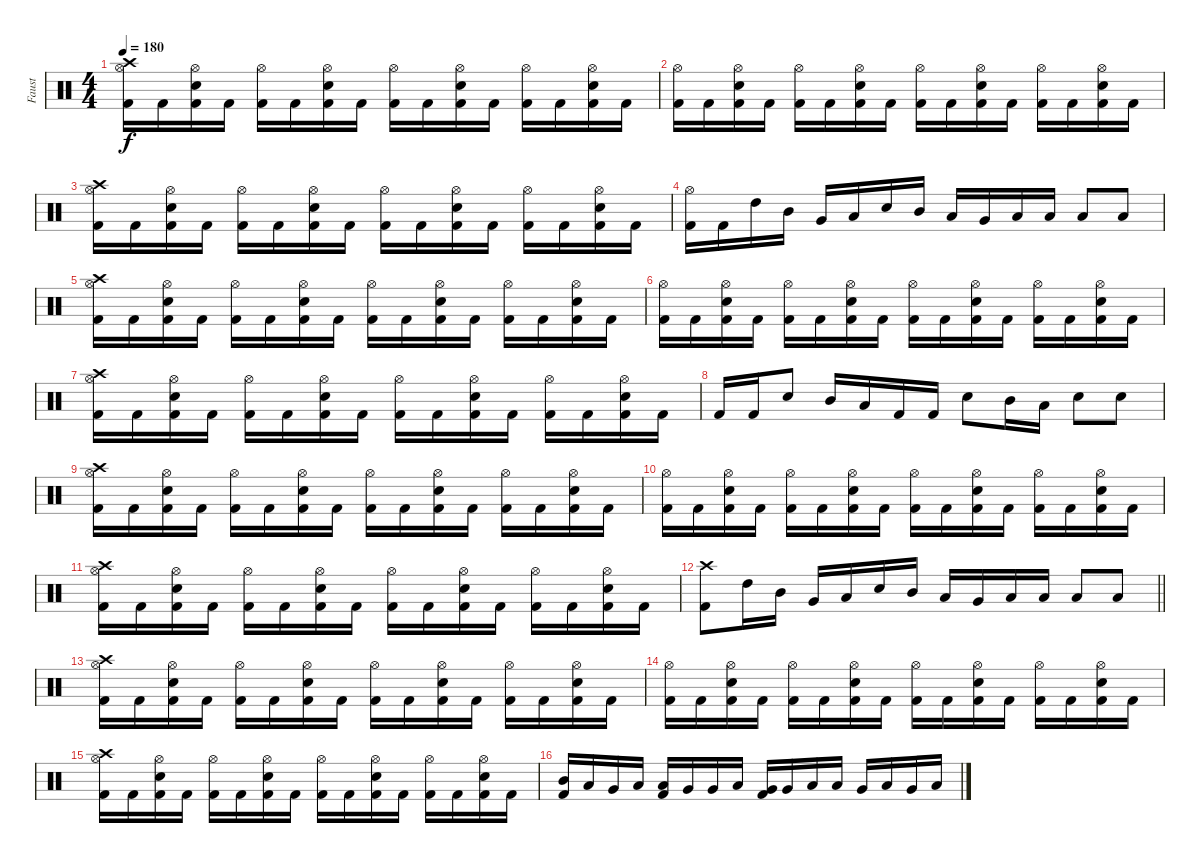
\track ("Faust" "Faust") {instrument percussion}
\staff {score}
\articulation defaults
\ts (4 4)
\tempo 180
\clef neutral
\ks c
("Crash high (hit)" "Hi-Hat (open)" "Kick (hit) 2").16{dy f} "Kick (hit) 2".16 ("Hi-Hat (open)" "Snare (hit) 2" "Kick (hit) 2").16 "Kick (hit) 2".16 ("Hi-Hat (open)" "Kick (hit) 2").16 "Kick (hit) 2".16 ("Hi-Hat (open)" "Snare (hit) 2" "Kick (hit) 2").16 "Kick (hit) 2".16 ("Hi-Hat (open)" "Kick (hit) 2").16 "Kick (hit) 2".16 ("Hi-Hat (open)" "Snare (hit) 2" "Kick (hit) 2").16 "Kick (hit) 2".16 ("Hi-Hat (open)" "Kick (hit) 2").16 "Kick (hit) 2".16 ("Hi-Hat (open)" "Snare (hit) 2" "Kick (hit) 2").16 "Kick (hit) 2".16 |
("Hi-Hat (open)" "Kick (hit) 2").16 "Kick (hit) 2".16 ("Hi-Hat (open)" "Snare (hit) 2" "Kick (hit) 2").16 "Kick (hit) 2".16 ("Hi-Hat (open)" "Kick (hit) 2").16 "Kick (hit) 2".16 ("Hi-Hat (open)" "Snare (hit) 2" "Kick (hit) 2").16 "Kick (hit) 2".16 ("Hi-Hat (open)" "Kick (hit) 2").16 "Kick (hit) 2".16 ("Hi-Hat (open)" "Snare (hit) 2" "Kick (hit) 2").16 "Kick (hit) 2".16 ("Hi-Hat (open)" "Kick (hit) 2").16 "Kick (hit) 2".16 ("Hi-Hat (open)" "Snare (hit) 2" "Kick (hit) 2").16 "Kick (hit) 2".16 |
("Crash high (hit)" "Hi-Hat (open)" "Kick (hit) 2").16 "Kick (hit) 2".16 ("Hi-Hat (open)" "Snare (hit) 2" "Kick (hit) 2").16 "Kick (hit) 2".16 ("Hi-Hat (open)" "Kick (hit) 2").16 "Kick (hit) 2".16 ("Hi-Hat (open)" "Snare (hit) 2" "Kick (hit) 2").16 "Kick (hit) 2".16 ("Hi-Hat (open)" "Kick (hit) 2").16 "Kick (hit) 2".16 ("Hi-Hat (open)" "Snare (hit) 2" "Kick (hit) 2").16 "Kick (hit) 2".16 ("Hi-Hat (open)" "Kick (hit) 2").16 "Kick (hit) 2".16 ("Hi-Hat (open)" "Snare (hit) 2" "Kick (hit) 2").16 "Kick (hit) 2".16 |
("Hi-Hat (open)" "Kick (hit) 2").16 "Kick (hit) 2".16 "High Tom (hit)".16 "Mid Tom (hit)".16 "Very Low Tom (hit)".16 "Low Tom (hit)".16 "Snare (hit) 2".16 "Mid Tom (hit)".16 "Low Tom (hit)".16 "Very Low Tom (hit)".16 "Low Floor Tom (hit)".16 "Low Floor Tom (hit)".16 "Low Tom (hit)".8 "Low Tom (hit)".8 |
("Crash high (hit)" "Hi-Hat (open)" "Kick (hit) 2").16 "Kick (hit) 2".16 ("Hi-Hat (open)" "Snare (hit) 2" "Kick (hit) 2").16 "Kick (hit) 2".16 ("Hi-Hat (open)" "Kick (hit) 2").16 "Kick (hit) 2".16 ("Hi-Hat (open)" "Snare (hit) 2" "Kick (hit) 2").16 "Kick (hit) 2".16 ("Hi-Hat (open)" "Kick (hit) 2").16 "Kick (hit) 2".16 ("Hi-Hat (open)" "Snare (hit) 2" "Kick (hit) 2").16 "Kick (hit) 2".16 ("Hi-Hat (open)" "Kick (hit) 2").16 "Kick (hit) 2".16 ("Hi-Hat (open)" "Snare (hit) 2" "Kick (hit) 2").16 "Kick (hit) 2".16 |
("Hi-Hat (open)" "Kick (hit) 2").16 "Kick (hit) 2".16 ("Hi-Hat (open)" "Snare (hit) 2" "Kick (hit) 2").16 "Kick (hit) 2".16 ("Hi-Hat (open)" "Kick (hit) 2").16 "Kick (hit) 2".16 ("Hi-Hat (open)" "Snare (hit) 2" "Kick (hit) 2").16 "Kick (hit) 2".16 ("Hi-Hat (open)" "Kick (hit) 2").16 "Kick (hit) 2".16 ("Hi-Hat (open)" "Snare (hit) 2" "Kick (hit) 2").16 "Kick (hit) 2".16 ("Hi-Hat (open)" "Kick (hit) 2").16 "Kick (hit) 2".16 ("Hi-Hat (open)" "Snare (hit) 2" "Kick (hit) 2").16 "Kick (hit) 2".16 |
("Crash high (hit)" "Hi-Hat (open)" "Kick (hit) 2").16 "Kick (hit) 2".16 ("Hi-Hat (open)" "Snare (hit) 2" "Kick (hit) 2").16 "Kick (hit) 2".16 ("Hi-Hat (open)" "Kick (hit) 2").16 "Kick (hit) 2".16 ("Hi-Hat (open)" "Snare (hit) 2" "Kick (hit) 2").16 "Kick (hit) 2".16 ("Hi-Hat (open)" "Kick (hit) 2").16 "Kick (hit) 2".16 ("Hi-Hat (open)" "Snare (hit) 2" "Kick (hit) 2").16 "Kick (hit) 2".16 ("Hi-Hat (open)" "Kick (hit) 2").16 "Kick (hit) 2".16 ("Hi-Hat (open)" "Snare (hit) 2" "Kick (hit) 2").16 "Kick (hit) 2".16 |
"Kick (hit) 2".16 "Kick (hit) 2".16 "Snare (hit) 2".8 "Mid Tom (hit)".16 "Low Tom (hit)".16 "Kick (hit) 2".16 "Kick (hit) 2".16 "Snare (hit) 2".8 "Mid Tom (hit)".16 "Low Tom (hit)".16 "Snare (hit) 2".8 "Snare (hit) 2".8 |
("Crash high (hit)" "Hi-Hat (open)" "Kick (hit) 2").16 "Kick (hit) 2".16 ("Hi-Hat (open)" "Snare (hit) 2" "Kick (hit) 2").16 "Kick (hit) 2".16 ("Hi-Hat (open)" "Kick (hit) 2").16 "Kick (hit) 2".16 ("Hi-Hat (open)" "Snare (hit) 2" "Kick (hit) 2").16 "Kick (hit) 2".16 ("Hi-Hat (open)" "Kick (hit) 2").16 "Kick (hit) 2".16 ("Hi-Hat (open)" "Snare (hit) 2" "Kick (hit) 2").16 "Kick (hit) 2".16 ("Hi-Hat (open)" "Kick (hit) 2").16 "Kick (hit) 2".16 ("Hi-Hat (open)" "Snare (hit) 2" "Kick (hit) 2").16 "Kick (hit) 2".16 |
("Hi-Hat (open)" "Kick (hit) 2").16 "Kick (hit) 2".16 ("Hi-Hat (open)" "Snare (hit) 2" "Kick (hit) 2").16 "Kick (hit) 2".16 ("Hi-Hat (open)" "Kick (hit) 2").16 "Kick (hit) 2".16 ("Hi-Hat (open)" "Snare (hit) 2" "Kick (hit) 2").16 "Kick (hit) 2".16 ("Hi-Hat (open)" "Kick (hit) 2").16 "Kick (hit) 2".16 ("Hi-Hat (open)" "Snare (hit) 2" "Kick (hit) 2").16 "Kick (hit) 2".16 ("Hi-Hat (open)" "Kick (hit) 2").16 "Kick (hit) 2".16 ("Hi-Hat (open)" "Snare (hit) 2" "Kick (hit) 2").16 "Kick (hit) 2".16 |
("Crash high (hit)" "Hi-Hat (open)" "Kick (hit) 2").16 "Kick (hit) 2".16 ("Hi-Hat (open)" "Snare (hit) 2" "Kick (hit) 2").16 "Kick (hit) 2".16 ("Hi-Hat (open)" "Kick (hit) 2").16 "Kick (hit) 2".16 ("Hi-Hat (open)" "Snare (hit) 2" "Kick (hit) 2").16 "Kick (hit) 2".16 ("Hi-Hat (open)" "Kick (hit) 2").16 "Kick (hit) 2".16 ("Hi-Hat (open)" "Snare (hit) 2" "Kick (hit) 2").16 "Kick (hit) 2".16 ("Hi-Hat (open)" "Kick (hit) 2").16 "Kick (hit) 2".16 ("Hi-Hat (open)" "Snare (hit) 2" "Kick (hit) 2").16 "Kick (hit) 2".16 |
\barLineRight lightlight
("Crash high (hit)" "Kick (hit) 2").8 "High Tom (hit)".16 "Mid Tom (hit)".16 "Very Low Tom (hit)".16 "Low Tom (hit)".16 "Snare (hit) 2".16 "Mid Tom (hit)".16 "Low Tom (hit)".16 "Very Low Tom (hit)".16 "Low Floor Tom (hit)".16 "Low Floor Tom (hit)".16 "Low Tom (hit)".8 "Low Tom (hit)".8 |
("Crash high (hit)" "Hi-Hat (open)" "Kick (hit) 2").16 "Kick (hit) 2".16 ("Hi-Hat (open)" "Snare (hit) 2" "Kick (hit) 2").16 "Kick (hit) 2".16 ("Hi-Hat (open)" "Kick (hit) 2").16 "Kick (hit) 2".16 ("Hi-Hat (open)" "Snare (hit) 2" "Kick (hit) 2").16 "Kick (hit) 2".16 ("Hi-Hat (open)" "Kick (hit) 2").16 "Kick (hit) 2".16 ("Hi-Hat (open)" "Snare (hit) 2" "Kick (hit) 2").16 "Kick (hit) 2".16 ("Hi-Hat (open)" "Kick (hit) 2").16 "Kick (hit) 2".16 ("Hi-Hat (open)" "Snare (hit) 2" "Kick (hit) 2").16 "Kick (hit) 2".16 |
("Hi-Hat (open)" "Kick (hit) 2").16 "Kick (hit) 2".16 ("Hi-Hat (open)" "Snare (hit) 2" "Kick (hit) 2").16 "Kick (hit) 2".16 ("Hi-Hat (open)" "Kick (hit) 2").16 "Kick (hit) 2".16 ("Hi-Hat (open)" "Snare (hit) 2" "Kick (hit) 2").16 "Kick (hit) 2".16 ("Hi-Hat (open)" "Kick (hit) 2").16 "Kick (hit) 2".16 ("Hi-Hat (open)" "Snare (hit) 2" "Kick (hit) 2").16 "Kick (hit) 2".16 ("Hi-Hat (open)" "Kick (hit) 2").16 "Kick (hit) 2".16 ("Hi-Hat (open)" "Snare (hit) 2" "Kick (hit) 2").16 "Kick (hit) 2".16 |
("Crash high (hit)" "Hi-Hat (open)" "Kick (hit) 2").16 "Kick (hit) 2".16 ("Hi-Hat (open)" "Snare (hit) 2" "Kick (hit) 2").16 "Kick (hit) 2".16 ("Hi-Hat (open)" "Kick (hit) 2").16 "Kick (hit) 2".16 ("Hi-Hat (open)" "Snare (hit) 2" "Kick (hit) 2").16 "Kick (hit) 2".16 ("Hi-Hat (open)" "Kick (hit) 2").16 "Kick (hit) 2".16 ("Hi-Hat (open)" "Snare (hit) 2" "Kick (hit) 2").16 "Kick (hit) 2".16 ("Hi-Hat (open)" "Kick (hit) 2").16 "Kick (hit) 2".16 ("Hi-Hat (open)" "Snare (hit) 2" "Kick (hit) 2").16 "Kick (hit) 2".16 |
("Mid Tom (hit)" "Kick (hit) 2").16 "Low Tom (hit)".16 "Very Low Tom (hit)".16 "Low Floor Tom (hit)".16 ("Low Tom (hit)" "Kick (hit) 2").16 "Very Low Tom (hit)".16 "Very Low Tom (hit)".16 "Low Floor Tom (hit)".16 ("Very Low Tom (hit)" "Kick (hit) 2").16 "Very Low Tom (hit)".16 "Low Floor Tom (hit)".16 "Low Floor Tom (hit)".16 "Very Low Tom (hit)".16 "Low Floor Tom (hit)".16 "Very Low Tom (hit)".16 "Low Floor Tom (hit)".16
